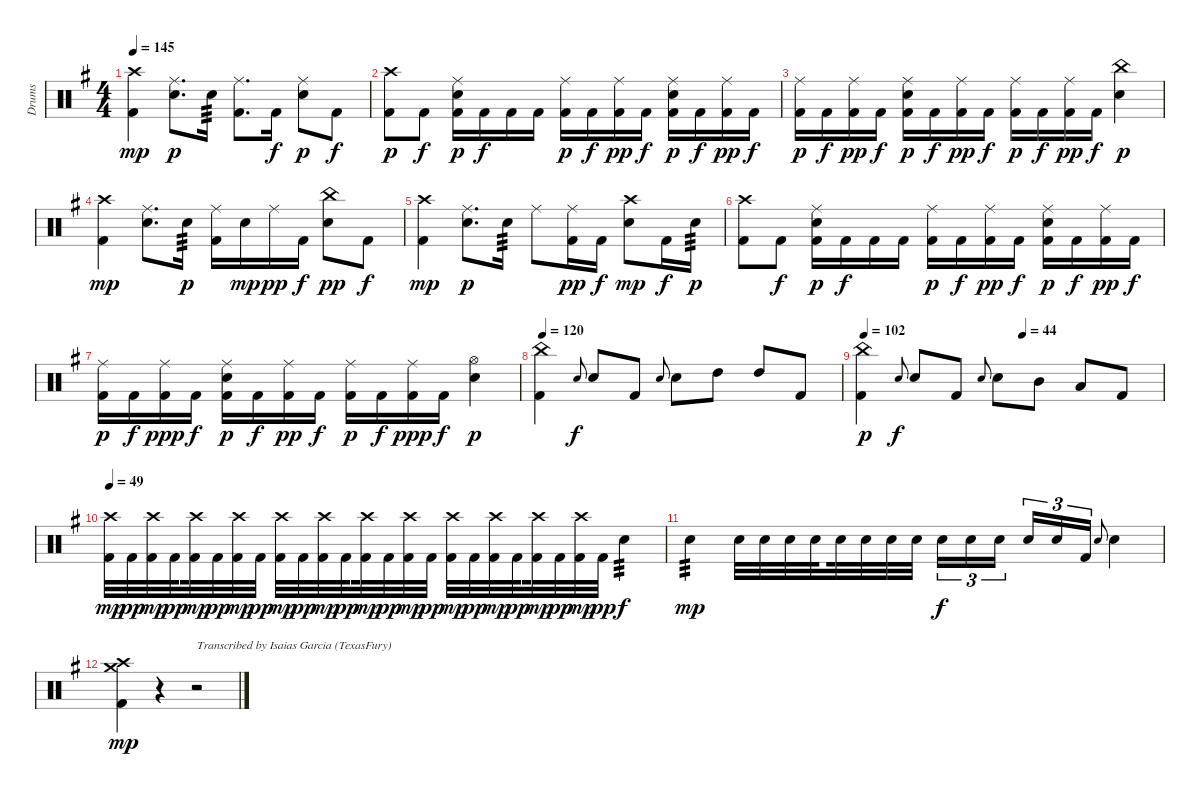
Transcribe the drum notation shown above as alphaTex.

\track ("Drums" "Drums") {instrument percussion}
\staff {score}
\articulation defaults
\ts (4 4)
\tempo 145
\clef neutral
\ks g
("Kick (hit) 2" "Crash high (hit)").4{dy mp} ("Electric Snare (hit)" "Ride (middle)").8{d dy p} "Electric Snare (hit)".16{tp 3} ("Kick (hit) 2" "Ride (middle)").8{d} "Kick (hit) 2".16{dy f} ("Electric Snare (hit)" "Ride (middle)").8{dy p} "Kick (hit) 2".8{dy f} |
("Kick (hit) 2" "Crash high (hit)").8{dy p} "Kick (hit) 2".8{dy f} ("Kick (hit) 2" "Electric Snare (hit)" "Ride (middle)").16{dy p} "Kick (hit) 2".16{dy f} "Kick (hit) 2".16 "Kick (hit) 2".16 ("Kick (hit) 2" "Ride (middle)").16{dy p} "Kick (hit) 2".16{dy f} ("Kick (hit) 2" "Ride (middle)").16{dy pp} "Kick (hit) 2".16{dy f} ("Kick (hit) 2" "Electric Snare (hit)" "Ride (middle)").16{dy p} "Kick (hit) 2".16{dy f} ("Kick (hit) 2" "Ride (middle)").16{dy pp} "Kick (hit) 2".16{dy f} |
("Kick (hit) 2" "Ride (middle)").16{dy p} "Kick (hit) 2".16{dy f} ("Kick (hit) 2" "Ride (middle)").16{dy pp} "Kick (hit) 2".16{dy f} ("Kick (hit) 2" "Electric Snare (hit)" "Ride (middle)").16{dy p} "Kick (hit) 2".16{dy f} ("Kick (hit) 2" "Ride (middle)").16{dy pp} "Kick (hit) 2".16{dy f} ("Kick (hit) 2" "Ride (middle)").16{dy p} "Kick (hit) 2".16{dy f} ("Kick (hit) 2" "Ride (middle)").16{dy pp} "Kick (hit) 2".16{dy f} ("China (hit)" "Electric Snare (hit)").4{dy p} |
("Kick (hit) 2" "Crash high (hit)").4{dy mp} ("Electric Snare (hit)" "Ride (middle)").8{d} "Electric Snare (hit)".16{tp 3 dy p} ("Kick (hit) 2" "Ride (middle)").16 "Electric Snare (hit)".16{dy mp} "Ride (middle)".16{dy pp} "Kick (hit) 2".16{dy f} ("Electric Snare (hit)" "China (hit)").8{dy pp} "Kick (hit) 2".8{dy f} |
("Kick (hit) 2" "Crash high (hit)").4{dy mp} ("Electric Snare (hit)" "Ride (middle)").8{d dy p} "Electric Snare (hit)".16{tp 3} "Ride (middle)".8 ("Kick (hit) 2" "Ride (middle)").16{dy pp} "Kick (hit) 2".16{dy f} ("Electric Snare (hit)" "Crash high (hit)").8{dy mp} "Kick (hit) 2".16{dy f} "Electric Snare (hit)".16{tp 3 dy p} |
("Kick (hit) 2" "Crash high (hit)").8 "Kick (hit) 2".8{dy f} ("Kick (hit) 2" "Electric Snare (hit)" "Ride (middle)").16{dy p} "Kick (hit) 2".16{dy f} "Kick (hit) 2".16 "Kick (hit) 2".16 ("Kick (hit) 2" "Ride (middle)").16{dy p} "Kick (hit) 2".16{dy f} ("Kick (hit) 2" "Ride (middle)").16{dy pp} "Kick (hit) 2".16{dy f} ("Kick (hit) 2" "Electric Snare (hit)" "Ride (middle)").16{dy p} "Kick (hit) 2".16{dy f} ("Kick (hit) 2" "Ride (middle)").16{dy pp} "Kick (hit) 2".16{dy f} |
("Kick (hit) 2" "Ride (middle)").16{dy p} "Kick (hit) 2".16{dy f} ("Kick (hit) 2" "Ride (middle)").16{dy ppp} "Kick (hit) 2".16{dy f} ("Kick (hit) 2" "Electric Snare (hit)" "Ride (middle)").16{dy p} "Kick (hit) 2".16{dy f} ("Kick (hit) 2" "Ride (middle)").16{dy pp} "Kick (hit) 2".16{dy f} ("Kick (hit) 2" "Ride (middle)").16{dy p} "Kick (hit) 2".16{dy f} ("Kick (hit) 2" "Ride (middle)").16{dy ppp} "Kick (hit) 2".16{dy f} ("Hi-Hat (open)" "Electric Snare (hit)").4{dy p} |
\tempo 120
("Kick (hit) 2" "China (hit)").4 "Electric Snare (hit)".8{gr onbeat dy f} "Electric Snare (hit)".8 "Kick (hit) 2".8 "Electric Snare (hit)".8{gr onbeat} "Electric Snare (hit)".8 "High Tom (hit)".8 "High Tom (hit)".8 "Kick (hit) 2".8 |
\tempo 102
\tempo (44 0.53125)
("Kick (hit) 2" "China (hit)").4{dy p} "Electric Snare (hit)".8{gr onbeat dy f} "Electric Snare (hit)".8 "Kick (hit) 2".8 "Electric Snare (hit)".8{gr onbeat} "Electric Snare (hit)".8 "Mid Tom (hit)".8 "Low Tom (hit)".8 "Kick (hit) 2".8 |
\tempo 49
("Kick (hit) 2" "Crash high (hit)").32{dy mp} "Kick (hit) 2".32{dy pp} ("Kick (hit) 2" "Crash high (hit)").32{dy mp} "Kick (hit) 2".32{dy pp beam splitsecondary} ("Kick (hit) 2" "Crash high (hit)").32{dy mp} "Kick (hit) 2".32{dy pp} ("Kick (hit) 2" "Crash high (hit)").32{dy mp} "Kick (hit) 2".32{dy pp} ("Kick (hit) 2" "Crash high (hit)").32{dy mp} "Kick (hit) 2".32{dy pp} ("Kick (hit) 2" "Crash high (hit)").32{dy mp} "Kick (hit) 2".32{dy pp beam splitsecondary} ("Kick (hit) 2" "Crash high (hit)").32{dy mp} "Kick (hit) 2".32{dy pp} ("Kick (hit) 2" "Crash high (hit)").32{dy mp} "Kick (hit) 2".32{dy pp} ("Kick (hit) 2" "Crash high (hit)").32{dy mp} "Kick (hit) 2".32{dy pp} ("Kick (hit) 2" "Crash high (hit)").32{dy mp} "Kick (hit) 2".32{dy pp beam splitsecondary} ("Kick (hit) 2" "Crash high (hit)").32{dy mp} "Kick (hit) 2".32{dy pp} ("Kick (hit) 2" "Crash high (hit)").32{dy mp} "Kick (hit) 2".32{dy pp} "Electric Snare (hit)".4{tp 3 dy f} |
"Electric Snare (hit)".4{tp 3 dy mp} "Electric Snare (hit)".32 "Electric Snare (hit)".32 "Electric Snare (hit)".32 "Electric Snare (hit)".32{beam splitsecondary} "Electric Snare (hit)".32 "Electric Snare (hit)".32 "Electric Snare (hit)".32 "Electric Snare (hit)".32 "Electric Snare (hit)".16{tu (3 2) dy f} "Electric Snare (hit)".16{tu (3 2)} "Electric Snare (hit)".16{tu (3 2) beam splitsecondary} "Electric Snare (hit)".16{tu (3 2)} "Electric Snare (hit)".16{tu (3 2)} "Kick (hit) 2".16{tu (3 2)} "Electric Snare (hit)".8{gr onbeat} "Electric Snare (hit)".4 |
("Kick (hit) 2" "Crash high (hit)" "Crash medium (hit)").4{dy mp volume 0} r.4 r.2{txt "Transcribed by Isaias Garcia (TexasFury)"}
